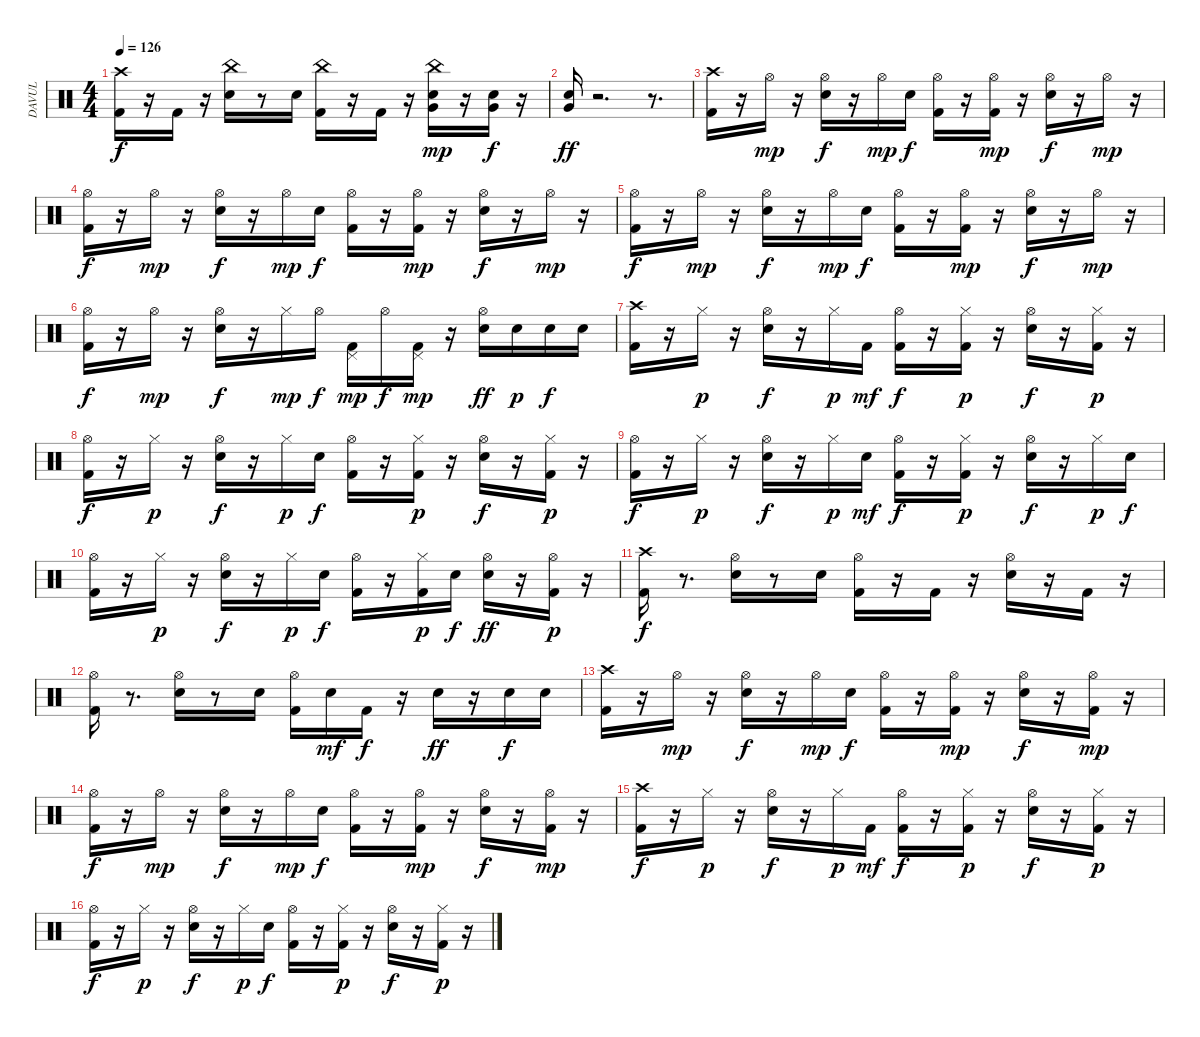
\track ("DAVUL" "DAVUL") {instrument percussion}
\staff {score}
\articulation defaults
\ts (4 4)
\tempo 126
\clef neutral
\ks c
("Kick (hit) 2" "Crash high (hit)").16{dy f} r.16 "Kick (hit) 2".16 r.16 ("China (hit)" "Electric Snare (hit)").16 r.8 "Electric Snare (hit)".16 ("China (hit)" "Kick (hit) 2").16 r.16 "Kick (hit) 2".16 r.16 ("China (hit)" "Electric Snare (hit)" "Very Low Tom (hit)").16{dy mp} r.16 ("Electric Snare (hit)" "Very Low Tom (hit)").16{dy f} r.16 |
("Electric Snare (hit)" "Very Low Tom (hit)").16{dy ff} r.2{d} r.8{d} |
("Kick (hit) 2" "Crash high (hit)").16 r.16 "Hi-Hat (open)".16{dy mp} r.16 ("Hi-Hat (open)" "Electric Snare (hit)").16{dy f} r.16 "Hi-Hat (open)".16{dy mp} "Electric Snare (hit)".16{dy f} ("Hi-Hat (open)" "Kick (hit) 2").16 r.16 ("Hi-Hat (open)" "Kick (hit) 2").16{dy mp} r.16 ("Hi-Hat (open)" "Electric Snare (hit)").16{dy f} r.16 "Hi-Hat (open)".16{dy mp} r.16 |
("Kick (hit) 2" "Hi-Hat (open)").16{dy f} r.16 "Hi-Hat (open)".16{dy mp} r.16 ("Hi-Hat (open)" "Electric Snare (hit)").16{dy f} r.16 "Hi-Hat (open)".16{dy mp} "Electric Snare (hit)".16{dy f} ("Kick (hit) 2" "Hi-Hat (open)").16 r.16 ("Hi-Hat (open)" "Kick (hit) 2").16{dy mp} r.16 ("Hi-Hat (open)" "Electric Snare (hit)").16{dy f} r.16 "Hi-Hat (open)".16{dy mp} r.16 |
("Kick (hit) 2" "Hi-Hat (open)").16{dy f} r.16 "Hi-Hat (open)".16{dy mp} r.16 ("Hi-Hat (open)" "Electric Snare (hit)").16{dy f} r.16 "Hi-Hat (open)".16{dy mp} "Electric Snare (hit)".16{dy f} ("Hi-Hat (open)" "Kick (hit) 2").16 r.16 ("Hi-Hat (open)" "Kick (hit) 2").16{dy mp} r.16 ("Hi-Hat (open)" "Electric Snare (hit)").16{dy f} r.16 "Hi-Hat (open)".16{dy mp} r.16 |
("Kick (hit) 2" "Hi-Hat (open)").16{dy f} r.16 "Hi-Hat (open)".16{dy mp} r.16 ("Electric Snare (hit)" "Hi-Hat (open)").16{dy f} r.16 "Hi-Hat (closed)".16{dy mp} "Hi-Hat (open)".16{dy f} ("Kick (hit) 2" "Pedal Hi-Hat (hit)").16{dy mp} "Hi-Hat (open)".16{dy f} ("Kick (hit) 2" "Pedal Hi-Hat (hit)").16{dy mp} r.16 ("Electric Snare (hit)" "Hi-Hat (open)").16{dy ff} "Electric Snare (hit)".16{dy p} "Electric Snare (hit)".16{dy f} "Electric Snare (hit)".16 |
("Crash high (hit)" "Kick (hit) 2").16 r.16 "Hi-Hat (closed)".16{dy p} r.16 ("Electric Snare (hit)" "Hi-Hat (open)").16{dy f} r.16 "Hi-Hat (closed)".16{dy p} "Kick (hit) 2".16{dy mf} ("Hi-Hat (open)" "Kick (hit) 2").16{dy f} r.16 ("Hi-Hat (closed)" "Kick (hit) 2").16{dy p} r.16 ("Electric Snare (hit)" "Hi-Hat (open)").16{dy f} r.16 ("Hi-Hat (closed)" "Kick (hit) 2").16{dy p} r.16 |
("Hi-Hat (open)" "Kick (hit) 2").16{dy f} r.16 "Hi-Hat (closed)".16{dy p} r.16 ("Electric Snare (hit)" "Hi-Hat (open)").16{dy f} r.16 "Hi-Hat (closed)".16{dy p} "Electric Snare (hit)".16{dy f} ("Hi-Hat (open)" "Kick (hit) 2").16 r.16 ("Hi-Hat (closed)" "Kick (hit) 2").16{dy p} r.16 ("Electric Snare (hit)" "Hi-Hat (open)").16{dy f} r.16 ("Hi-Hat (closed)" "Kick (hit) 2").16{dy p} r.16 |
("Kick (hit) 2" "Hi-Hat (open)").16{dy f} r.16 "Hi-Hat (closed)".16{dy p} r.16 ("Electric Snare (hit)" "Hi-Hat (open)").16{dy f} r.16 "Hi-Hat (closed)".16{dy p} "Electric Snare (hit)".16{dy mf} ("Hi-Hat (open)" "Kick (hit) 2").16{dy f} r.16 ("Hi-Hat (closed)" "Kick (hit) 2").16{dy p} r.16 ("Electric Snare (hit)" "Hi-Hat (open)").16{dy f} r.16 "Hi-Hat (closed)".16{dy p} "Electric Snare (hit)".16{dy f} |
("Hi-Hat (open)" "Kick (hit) 2").16 r.16 "Hi-Hat (closed)".16{dy p} r.16 ("Electric Snare (hit)" "Hi-Hat (open)").16{dy f} r.16 "Hi-Hat (closed)".16{dy p} "Electric Snare (hit)".16{dy f} ("Hi-Hat (open)" "Kick (hit) 2").16 r.16 ("Hi-Hat (closed)" "Kick (hit) 2").16{dy p} "Electric Snare (hit)".16{dy f} ("Electric Snare (hit)" "Hi-Hat (open)").16{dy ff} r.16 ("Kick (hit) 2" "Hi-Hat (open)").16{dy p} r.16 |
("Crash high (hit)" "Kick (hit) 2").16{dy f} r.8{d} ("Hi-Hat (open)" "Electric Snare (hit)").16 r.8 "Electric Snare (hit)".16 ("Hi-Hat (open)" "Kick (hit) 2").16 r.16 "Kick (hit) 2".16 r.16 ("Hi-Hat (open)" "Electric Snare (hit)").16 r.16 "Kick (hit) 2".16 r.16 |
("Kick (hit) 2" "Hi-Hat (open)").16 r.8{d} ("Hi-Hat (open)" "Electric Snare (hit)").16 r.8 "Electric Snare (hit)".16 ("Hi-Hat (open)" "Kick (hit) 2").16 "Electric Snare (hit)".16{dy mf} "Kick (hit) 2".16{dy f} r.16 "Electric Snare (hit)".16{dy ff} r.16 "Electric Snare (hit)".16{dy f} "Electric Snare (hit)".16 |
("Kick (hit) 2" "Crash high (hit)").16 r.16 "Hi-Hat (open)".16{dy mp} r.16 ("Hi-Hat (open)" "Electric Snare (hit)").16{dy f} r.16 "Hi-Hat (open)".16{dy mp} "Electric Snare (hit)".16{dy f} ("Hi-Hat (open)" "Kick (hit) 2").16 r.16 ("Hi-Hat (open)" "Kick (hit) 2").16{dy mp} r.16 ("Hi-Hat (open)" "Electric Snare (hit)").16{dy f} r.16 ("Hi-Hat (open)" "Kick (hit) 2").16{dy mp} r.16 |
("Kick (hit) 2" "Hi-Hat (open)").16{dy f} r.16 "Hi-Hat (open)".16{dy mp} r.16 ("Hi-Hat (open)" "Electric Snare (hit)").16{dy f} r.16 "Hi-Hat (open)".16{dy mp} "Electric Snare (hit)".16{dy f} ("Hi-Hat (open)" "Kick (hit) 2").16 r.16 ("Hi-Hat (open)" "Kick (hit) 2").16{dy mp} r.16 ("Hi-Hat (open)" "Electric Snare (hit)").16{dy f} r.16 ("Hi-Hat (open)" "Kick (hit) 2").16{dy mp} r.16 |
("Crash high (hit)" "Kick (hit) 2").16{dy f} r.16 "Hi-Hat (closed)".16{dy p} r.16 ("Electric Snare (hit)" "Hi-Hat (open)").16{dy f} r.16 "Hi-Hat (closed)".16{dy p} "Kick (hit) 2".16{dy mf} ("Hi-Hat (open)" "Kick (hit) 2").16{dy f} r.16 ("Hi-Hat (closed)" "Kick (hit) 2").16{dy p} r.16 ("Electric Snare (hit)" "Hi-Hat (open)").16{dy f} r.16 ("Hi-Hat (closed)" "Kick (hit) 2").16{dy p} r.16 |
("Hi-Hat (open)" "Kick (hit) 2").16{dy f} r.16 "Hi-Hat (closed)".16{dy p} r.16 ("Electric Snare (hit)" "Hi-Hat (open)").16{dy f} r.16 "Hi-Hat (closed)".16{dy p} "Electric Snare (hit)".16{dy f} ("Hi-Hat (open)" "Kick (hit) 2").16 r.16 ("Hi-Hat (closed)" "Kick (hit) 2").16{dy p} r.16 ("Electric Snare (hit)" "Hi-Hat (open)").16{dy f} r.16 ("Hi-Hat (closed)" "Kick (hit) 2").16{dy p} r.16
